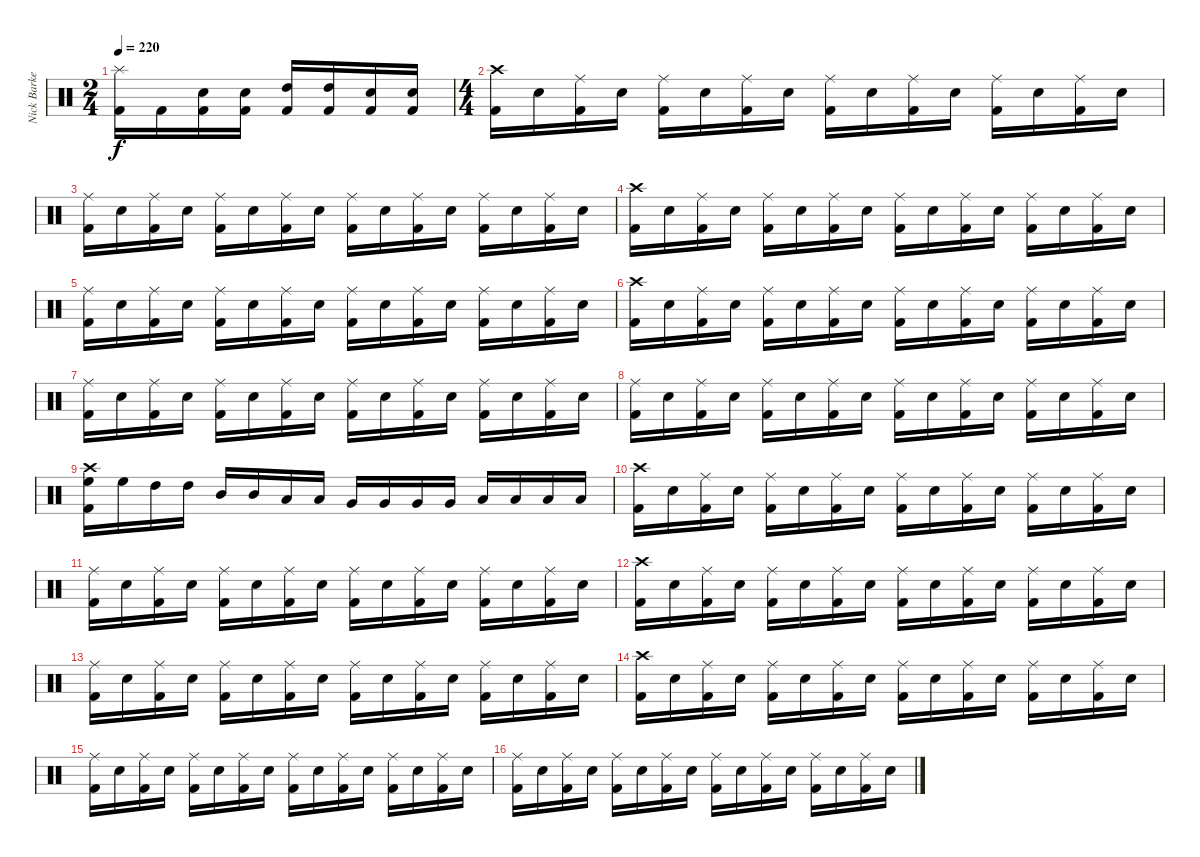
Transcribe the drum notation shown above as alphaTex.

\track ("Nick Barker" "Nick Barke") {instrument percussion}
\staff {score}
\articulation defaults
\ts (2 4)
\tempo 220
\clef neutral
\ks c
("Splash (hit)" "Kick (hit) 2").16{dy f} "Kick (hit) 2".16 ("Electric Snare (hit)" "Kick (hit) 2").16 ("Electric Snare (hit)" "Kick (hit) 2").16 ("High Tom (hit)" "Kick (hit) 2").16 ("High Tom (hit)" "Kick (hit) 2").16 ("Electric Snare (hit)" "Kick (hit) 2").16 ("Electric Snare (hit)" "Kick (hit) 2").16 |
\ts (4 4)
\section ("" "")
("Crash high (hit)" "Kick (hit) 2").16 "Electric Snare (hit)".16 ("Ride (middle)" "Kick (hit) 2").16 "Electric Snare (hit)".16 ("Ride (middle)" "Kick (hit) 2").16 "Electric Snare (hit)".16 ("Ride (middle)" "Kick (hit) 2").16 "Electric Snare (hit)".16 ("Ride (middle)" "Kick (hit) 2").16 "Electric Snare (hit)".16 ("Ride (middle)" "Kick (hit) 2").16 "Electric Snare (hit)".16 ("Ride (middle)" "Kick (hit) 2").16 "Electric Snare (hit)".16 ("Ride (middle)" "Kick (hit) 2").16 "Electric Snare (hit)".16 |
("Ride (middle)" "Kick (hit) 2").16 "Electric Snare (hit)".16 ("Ride (middle)" "Kick (hit) 2").16 "Electric Snare (hit)".16 ("Ride (middle)" "Kick (hit) 2").16 "Electric Snare (hit)".16 ("Ride (middle)" "Kick (hit) 2").16 "Electric Snare (hit)".16 ("Ride (middle)" "Kick (hit) 2").16 "Electric Snare (hit)".16 ("Ride (middle)" "Kick (hit) 2").16 "Electric Snare (hit)".16 ("Ride (middle)" "Kick (hit) 2").16 "Electric Snare (hit)".16 ("Ride (middle)" "Kick (hit) 2").16 "Electric Snare (hit)".16 |
("Crash high (hit)" "Kick (hit) 2").16 "Electric Snare (hit)".16 ("Ride (middle)" "Kick (hit) 2").16 "Electric Snare (hit)".16 ("Ride (middle)" "Kick (hit) 2").16 "Electric Snare (hit)".16 ("Ride (middle)" "Kick (hit) 2").16 "Electric Snare (hit)".16 ("Ride (middle)" "Kick (hit) 2").16 "Electric Snare (hit)".16 ("Ride (middle)" "Kick (hit) 2").16 "Electric Snare (hit)".16 ("Ride (middle)" "Kick (hit) 2").16 "Electric Snare (hit)".16 ("Ride (middle)" "Kick (hit) 2").16 "Electric Snare (hit)".16 |
("Ride (middle)" "Kick (hit) 2").16 "Electric Snare (hit)".16 ("Ride (middle)" "Kick (hit) 2").16 "Electric Snare (hit)".16 ("Ride (middle)" "Kick (hit) 2").16 "Electric Snare (hit)".16 ("Ride (middle)" "Kick (hit) 2").16 "Electric Snare (hit)".16 ("Ride (middle)" "Kick (hit) 2").16 "Electric Snare (hit)".16 ("Ride (middle)" "Kick (hit) 2").16 "Electric Snare (hit)".16 ("Ride (middle)" "Kick (hit) 2").16 "Electric Snare (hit)".16 ("Ride (middle)" "Kick (hit) 2").16 "Electric Snare (hit)".16 |
("Crash high (hit)" "Kick (hit) 2").16 "Electric Snare (hit)".16 ("Ride (middle)" "Kick (hit) 2").16 "Electric Snare (hit)".16 ("Ride (middle)" "Kick (hit) 2").16 "Electric Snare (hit)".16 ("Ride (middle)" "Kick (hit) 2").16 "Electric Snare (hit)".16 ("Ride (middle)" "Kick (hit) 2").16 "Electric Snare (hit)".16 ("Ride (middle)" "Kick (hit) 2").16 "Electric Snare (hit)".16 ("Ride (middle)" "Kick (hit) 2").16 "Electric Snare (hit)".16 ("Ride (middle)" "Kick (hit) 2").16 "Electric Snare (hit)".16 |
("Ride (middle)" "Kick (hit) 2").16 "Electric Snare (hit)".16 ("Ride (middle)" "Kick (hit) 2").16 "Electric Snare (hit)".16 ("Ride (middle)" "Kick (hit) 2").16 "Electric Snare (hit)".16 ("Ride (middle)" "Kick (hit) 2").16 "Electric Snare (hit)".16 ("Ride (middle)" "Kick (hit) 2").16 "Electric Snare (hit)".16 ("Ride (middle)" "Kick (hit) 2").16 "Electric Snare (hit)".16 ("Ride (middle)" "Kick (hit) 2").16 "Electric Snare (hit)".16 ("Ride (middle)" "Kick (hit) 2").16 "Electric Snare (hit)".16 |
("Ride (middle)" "Kick (hit) 2").16 "Electric Snare (hit)".16 ("Ride (middle)" "Kick (hit) 2").16 "Electric Snare (hit)".16 ("Ride (middle)" "Kick (hit) 2").16 "Electric Snare (hit)".16 ("Ride (middle)" "Kick (hit) 2").16 "Electric Snare (hit)".16 ("Ride (middle)" "Kick (hit) 2").16 "Electric Snare (hit)".16 ("Ride (middle)" "Kick (hit) 2").16 "Electric Snare (hit)".16 ("Ride (middle)" "Kick (hit) 2").16 "Electric Snare (hit)".16 ("Ride (middle)" "Kick (hit) 2").16 "Electric Snare (hit)".16 |
("Crash high (hit)" "High Floor Tom (hit)" "Kick (hit) 2").16 "High Floor Tom (hit)".16 "High Tom (hit)".16 "High Tom (hit)".16 "Mid Tom (hit)".16 "Mid Tom (hit)".16 "Low Tom (hit)".16 "Low Tom (hit)".16 "Very Low Tom (hit)".16 "Very Low Tom (hit)".16 "Very Low Tom (hit)".16 "Very Low Tom (hit)".16 "Low Floor Tom (hit)".16 "Low Floor Tom (hit)".16 "Low Floor Tom (hit)".16 "Low Floor Tom (hit)".16 |
("Crash high (hit)" "Kick (hit) 2").16 "Electric Snare (hit)".16 ("Ride (middle)" "Kick (hit) 2").16 "Electric Snare (hit)".16 ("Ride (middle)" "Kick (hit) 2").16 "Electric Snare (hit)".16 ("Ride (middle)" "Kick (hit) 2").16 "Electric Snare (hit)".16 ("Ride (middle)" "Kick (hit) 2").16 "Electric Snare (hit)".16 ("Ride (middle)" "Kick (hit) 2").16 "Electric Snare (hit)".16 ("Ride (middle)" "Kick (hit) 2").16 "Electric Snare (hit)".16 ("Ride (middle)" "Kick (hit) 2").16 "Electric Snare (hit)".16 |
("Ride (middle)" "Kick (hit) 2").16 "Electric Snare (hit)".16 ("Ride (middle)" "Kick (hit) 2").16 "Electric Snare (hit)".16 ("Ride (middle)" "Kick (hit) 2").16 "Electric Snare (hit)".16 ("Ride (middle)" "Kick (hit) 2").16 "Electric Snare (hit)".16 ("Ride (middle)" "Kick (hit) 2").16 "Electric Snare (hit)".16 ("Ride (middle)" "Kick (hit) 2").16 "Electric Snare (hit)".16 ("Ride (middle)" "Kick (hit) 2").16 "Electric Snare (hit)".16 ("Ride (middle)" "Kick (hit) 2").16 "Electric Snare (hit)".16 |
("Crash high (hit)" "Kick (hit) 2").16 "Electric Snare (hit)".16 ("Ride (middle)" "Kick (hit) 2").16 "Electric Snare (hit)".16 ("Ride (middle)" "Kick (hit) 2").16 "Electric Snare (hit)".16 ("Ride (middle)" "Kick (hit) 2").16 "Electric Snare (hit)".16 ("Ride (middle)" "Kick (hit) 2").16 "Electric Snare (hit)".16 ("Ride (middle)" "Kick (hit) 2").16 "Electric Snare (hit)".16 ("Ride (middle)" "Kick (hit) 2").16 "Electric Snare (hit)".16 ("Ride (middle)" "Kick (hit) 2").16 "Electric Snare (hit)".16 |
("Ride (middle)" "Kick (hit) 2").16 "Electric Snare (hit)".16 ("Ride (middle)" "Kick (hit) 2").16 "Electric Snare (hit)".16 ("Ride (middle)" "Kick (hit) 2").16 "Electric Snare (hit)".16 ("Ride (middle)" "Kick (hit) 2").16 "Electric Snare (hit)".16 ("Ride (middle)" "Kick (hit) 2").16 "Electric Snare (hit)".16 ("Ride (middle)" "Kick (hit) 2").16 "Electric Snare (hit)".16 ("Ride (middle)" "Kick (hit) 2").16 "Electric Snare (hit)".16 ("Ride (middle)" "Kick (hit) 2").16 "Electric Snare (hit)".16 |
("Crash high (hit)" "Kick (hit) 2").16 "Electric Snare (hit)".16 ("Ride (middle)" "Kick (hit) 2").16 "Electric Snare (hit)".16 ("Ride (middle)" "Kick (hit) 2").16 "Electric Snare (hit)".16 ("Ride (middle)" "Kick (hit) 2").16 "Electric Snare (hit)".16 ("Ride (middle)" "Kick (hit) 2").16 "Electric Snare (hit)".16 ("Ride (middle)" "Kick (hit) 2").16 "Electric Snare (hit)".16 ("Ride (middle)" "Kick (hit) 2").16 "Electric Snare (hit)".16 ("Ride (middle)" "Kick (hit) 2").16 "Electric Snare (hit)".16 |
("Ride (middle)" "Kick (hit) 2").16 "Electric Snare (hit)".16 ("Ride (middle)" "Kick (hit) 2").16 "Electric Snare (hit)".16 ("Ride (middle)" "Kick (hit) 2").16 "Electric Snare (hit)".16 ("Ride (middle)" "Kick (hit) 2").16 "Electric Snare (hit)".16 ("Ride (middle)" "Kick (hit) 2").16 "Electric Snare (hit)".16 ("Ride (middle)" "Kick (hit) 2").16 "Electric Snare (hit)".16 ("Ride (middle)" "Kick (hit) 2").16 "Electric Snare (hit)".16 ("Ride (middle)" "Kick (hit) 2").16 "Electric Snare (hit)".16 |
("Ride (middle)" "Kick (hit) 2").16 "Electric Snare (hit)".16 ("Ride (middle)" "Kick (hit) 2").16 "Electric Snare (hit)".16 ("Ride (middle)" "Kick (hit) 2").16 "Electric Snare (hit)".16 ("Ride (middle)" "Kick (hit) 2").16 "Electric Snare (hit)".16 ("Ride (middle)" "Kick (hit) 2").16 "Electric Snare (hit)".16 ("Ride (middle)" "Kick (hit) 2").16 "Electric Snare (hit)".16 ("Ride (middle)" "Kick (hit) 2").16 "Electric Snare (hit)".16 ("Ride (middle)" "Kick (hit) 2").16 "Electric Snare (hit)".16
